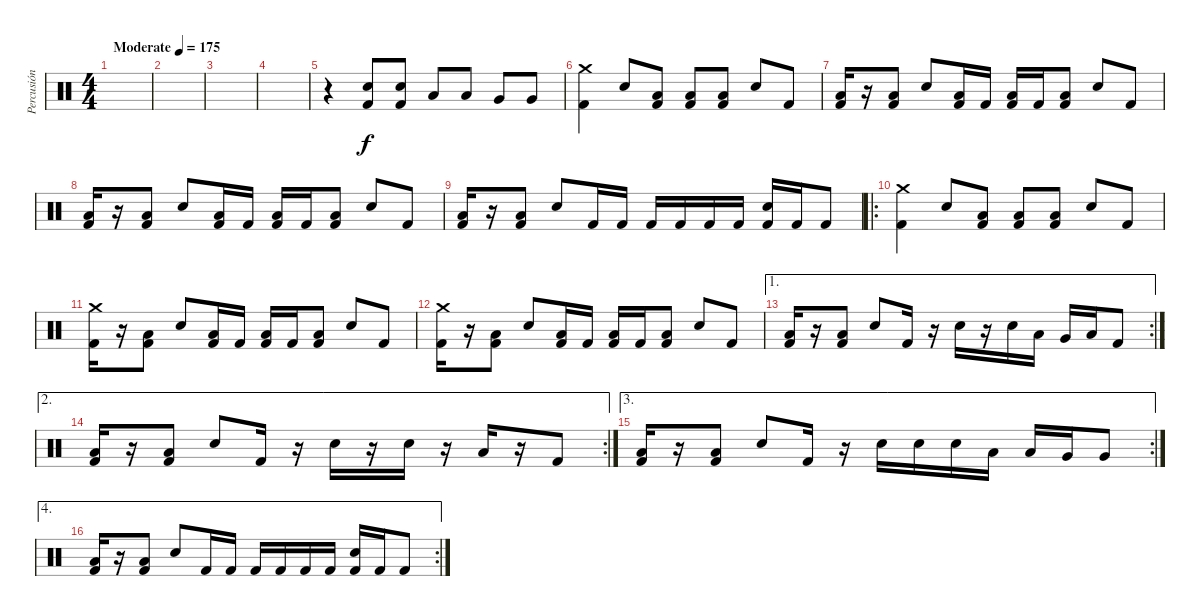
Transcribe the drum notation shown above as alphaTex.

\track ("Percusión" "Percusión") {solo instrument percussion}
\staff {score}
\articulation defaults
\ts (4 4)
\tempo (175 "Moderate")
\clef neutral
\ks c
|
|
|
|
r.4 ("Kick (hit) 2" "Electric Snare (hit)").8 ("Kick (hit) 2" "Electric Snare (hit)").8 "Low Floor Tom (hit)".8 "Low Floor Tom (hit)".8 "Very Low Tom (hit)".8 "Very Low Tom (hit)".8 |
("Kick (hit) 2" "Crash medium (hit)").4 "Electric Snare (hit)".8 ("Low Floor Tom (hit)" "Kick (hit) 2").8 ("Low Floor Tom (hit)" "Kick (hit) 2").8 ("Low Floor Tom (hit)" "Kick (hit) 2").8 "Electric Snare (hit)".8 "Kick (hit) 2".8 |
("Low Floor Tom (hit)" "Kick (hit) 2").16 r.16 ("Low Floor Tom (hit)" "Kick (hit) 2").8 "Electric Snare (hit)".8 ("Low Floor Tom (hit)" "Kick (hit) 2").16 "Kick (hit) 2".16 ("Low Floor Tom (hit)" "Kick (hit) 2").16 "Kick (hit) 2".16 ("Low Floor Tom (hit)" "Kick (hit) 2").8 "Electric Snare (hit)".8 "Kick (hit) 2".8 |
("Low Floor Tom (hit)" "Kick (hit) 2").16 r.16 ("Low Floor Tom (hit)" "Kick (hit) 2").8 "Electric Snare (hit)".8 ("Low Floor Tom (hit)" "Kick (hit) 2").16 "Kick (hit) 2".16 ("Low Floor Tom (hit)" "Kick (hit) 2").16 "Kick (hit) 2".16 ("Low Floor Tom (hit)" "Kick (hit) 2").8 "Electric Snare (hit)".8 "Kick (hit) 2".8 |
("Low Floor Tom (hit)" "Kick (hit) 2").16 r.16 ("Low Floor Tom (hit)" "Kick (hit) 2").8 "Electric Snare (hit)".8 "Kick (hit) 2".16 "Kick (hit) 2".16 "Kick (hit) 2".16 "Kick (hit) 2".16 "Kick (hit) 2".16 "Kick (hit) 2".16 ("Electric Snare (hit)" "Kick (hit) 2").16 "Kick (hit) 2".16 "Kick (hit) 2".8 |
\ro
("Kick (hit) 2" "Crash medium (hit)").4 "Electric Snare (hit)".8 ("Low Floor Tom (hit)" "Kick (hit) 2").8 ("Low Floor Tom (hit)" "Kick (hit) 2").8 ("Low Floor Tom (hit)" "Kick (hit) 2").8 "Electric Snare (hit)".8 "Kick (hit) 2".8 |
("Kick (hit) 2" "Crash medium (hit)").16 r.16 ("Low Floor Tom (hit)" "Kick (hit) 2").8 "Electric Snare (hit)".8 ("Low Floor Tom (hit)" "Kick (hit) 2").16 "Kick (hit) 2".16 ("Low Floor Tom (hit)" "Kick (hit) 2").16 "Kick (hit) 2".16 ("Low Floor Tom (hit)" "Kick (hit) 2").8 "Electric Snare (hit)".8 "Kick (hit) 2".8 |
("Crash medium (hit)" "Kick (hit) 2").16 r.16 ("Low Floor Tom (hit)" "Kick (hit) 2").8 "Electric Snare (hit)".8 ("Low Floor Tom (hit)" "Kick (hit) 2").16 "Kick (hit) 2".16 ("Low Floor Tom (hit)" "Kick (hit) 2").16 "Kick (hit) 2".16 ("Low Floor Tom (hit)" "Kick (hit) 2").8 "Electric Snare (hit)".8 "Kick (hit) 2".8 |
\ae 1
\rc 2
("Low Floor Tom (hit)" "Kick (hit) 2").16 r.16 ("Low Floor Tom (hit)" "Kick (hit) 2").8 "Electric Snare (hit)".8 "Kick (hit) 2".16 r.16 "Electric Snare (hit)".16 r.16 "Electric Snare (hit)".16 "Low Floor Tom (hit)".16 "Very Low Tom (hit)".16 "Low Tom (hit)".16 "Kick (hit) 2".8 |
\ae 2
\rc 2
("Low Floor Tom (hit)" "Kick (hit) 2").16 r.16 ("Low Floor Tom (hit)" "Kick (hit) 2").8 "Electric Snare (hit)".8 "Kick (hit) 2".16 r.16 "Electric Snare (hit)".16 r.16 "Electric Snare (hit)".16 r.16 "Low Floor Tom (hit)".16 r.16 "Kick (hit) 2".8 |
\ae 3
\rc 2
("Low Floor Tom (hit)" "Kick (hit) 2").16 r.16 ("Low Floor Tom (hit)" "Kick (hit) 2").8 "Electric Snare (hit)".8 "Kick (hit) 2".16 r.16 "Electric Snare (hit)".16 "Electric Snare (hit)".16 "Electric Snare (hit)".16 "Low Floor Tom (hit)".16 "Low Floor Tom (hit)".16 "Very Low Tom (hit)".16 "Very Low Tom (hit)".8 |
\ae 4
\rc 2
("Low Floor Tom (hit)" "Kick (hit) 2").16 r.16 ("Low Floor Tom (hit)" "Kick (hit) 2").8 "Electric Snare (hit)".8 "Kick (hit) 2".16 "Kick (hit) 2".16 "Kick (hit) 2".16 "Kick (hit) 2".16 "Kick (hit) 2".16 "Kick (hit) 2".16 ("Electric Snare (hit)" "Kick (hit) 2").16 "Kick (hit) 2".16 "Kick (hit) 2".8
